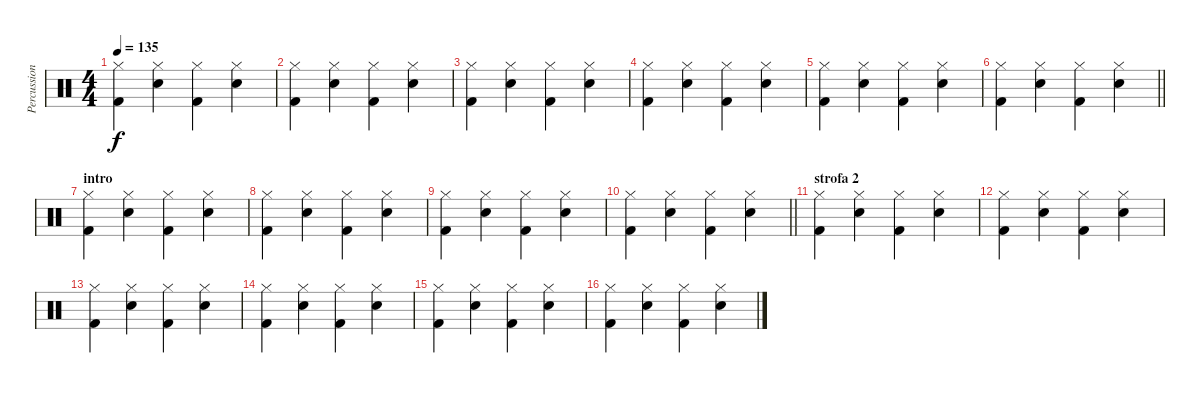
\track ("Percussion" "Percussion") {instrument percussion}
\staff {score}
\articulation defaults
\ts (4 4)
\tempo 135
\clef neutral
\ks c
("Hi-Hat (closed)" "Kick (hit) 2").4{dy f} ("Hi-Hat (closed)" "Electric Snare (hit)").4 ("Hi-Hat (closed)" "Kick (hit) 2").4 ("Hi-Hat (closed)" "Electric Snare (hit)").4 |
("Hi-Hat (closed)" "Kick (hit) 2").4 ("Hi-Hat (closed)" "Electric Snare (hit)").4 ("Hi-Hat (closed)" "Kick (hit) 2").4 ("Hi-Hat (closed)" "Electric Snare (hit)").4 |
("Hi-Hat (closed)" "Kick (hit) 2").4 ("Hi-Hat (closed)" "Electric Snare (hit)").4 ("Hi-Hat (closed)" "Kick (hit) 2").4 ("Hi-Hat (closed)" "Electric Snare (hit)").4 |
("Hi-Hat (closed)" "Kick (hit) 2").4 ("Hi-Hat (closed)" "Electric Snare (hit)").4 ("Hi-Hat (closed)" "Kick (hit) 2").4 ("Hi-Hat (closed)" "Electric Snare (hit)").4 |
("Hi-Hat (closed)" "Kick (hit) 2").4 ("Hi-Hat (closed)" "Electric Snare (hit)").4 ("Hi-Hat (closed)" "Kick (hit) 2").4 ("Hi-Hat (closed)" "Electric Snare (hit)").4 |
\barLineRight lightlight
("Hi-Hat (closed)" "Kick (hit) 2").4 ("Hi-Hat (closed)" "Electric Snare (hit)").4 ("Hi-Hat (closed)" "Kick (hit) 2").4 ("Hi-Hat (closed)" "Electric Snare (hit)").4 |
\section ("" "intro")
("Hi-Hat (closed)" "Kick (hit) 2").4 ("Hi-Hat (closed)" "Electric Snare (hit)").4 ("Hi-Hat (closed)" "Kick (hit) 2").4 ("Hi-Hat (closed)" "Electric Snare (hit)").4 |
("Hi-Hat (closed)" "Kick (hit) 2").4 ("Hi-Hat (closed)" "Electric Snare (hit)").4 ("Hi-Hat (closed)" "Kick (hit) 2").4 ("Hi-Hat (closed)" "Electric Snare (hit)").4 |
("Hi-Hat (closed)" "Kick (hit) 2").4 ("Hi-Hat (closed)" "Electric Snare (hit)").4 ("Hi-Hat (closed)" "Kick (hit) 2").4 ("Hi-Hat (closed)" "Electric Snare (hit)").4 |
\barLineRight lightlight
("Hi-Hat (closed)" "Kick (hit) 2").4 ("Hi-Hat (closed)" "Electric Snare (hit)").4 ("Hi-Hat (closed)" "Kick (hit) 2").4 ("Hi-Hat (closed)" "Electric Snare (hit)").4 |
\section ("" "strofa 2")
("Hi-Hat (closed)" "Kick (hit) 2").4 ("Hi-Hat (closed)" "Electric Snare (hit)").4 ("Hi-Hat (closed)" "Kick (hit) 2").4 ("Hi-Hat (closed)" "Electric Snare (hit)").4 |
("Hi-Hat (closed)" "Kick (hit) 2").4 ("Hi-Hat (closed)" "Electric Snare (hit)").4 ("Hi-Hat (closed)" "Kick (hit) 2").4 ("Hi-Hat (closed)" "Electric Snare (hit)").4 |
("Hi-Hat (closed)" "Kick (hit) 2").4 ("Hi-Hat (closed)" "Electric Snare (hit)").4 ("Hi-Hat (closed)" "Kick (hit) 2").4 ("Hi-Hat (closed)" "Electric Snare (hit)").4 |
("Hi-Hat (closed)" "Kick (hit) 2").4 ("Hi-Hat (closed)" "Electric Snare (hit)").4 ("Hi-Hat (closed)" "Kick (hit) 2").4 ("Hi-Hat (closed)" "Electric Snare (hit)").4 |
("Hi-Hat (closed)" "Kick (hit) 2").4 ("Hi-Hat (closed)" "Electric Snare (hit)").4 ("Hi-Hat (closed)" "Kick (hit) 2").4 ("Hi-Hat (closed)" "Electric Snare (hit)").4 |
("Hi-Hat (closed)" "Kick (hit) 2").4 ("Hi-Hat (closed)" "Electric Snare (hit)").4 ("Hi-Hat (closed)" "Kick (hit) 2").4 ("Hi-Hat (closed)" "Electric Snare (hit)").4
